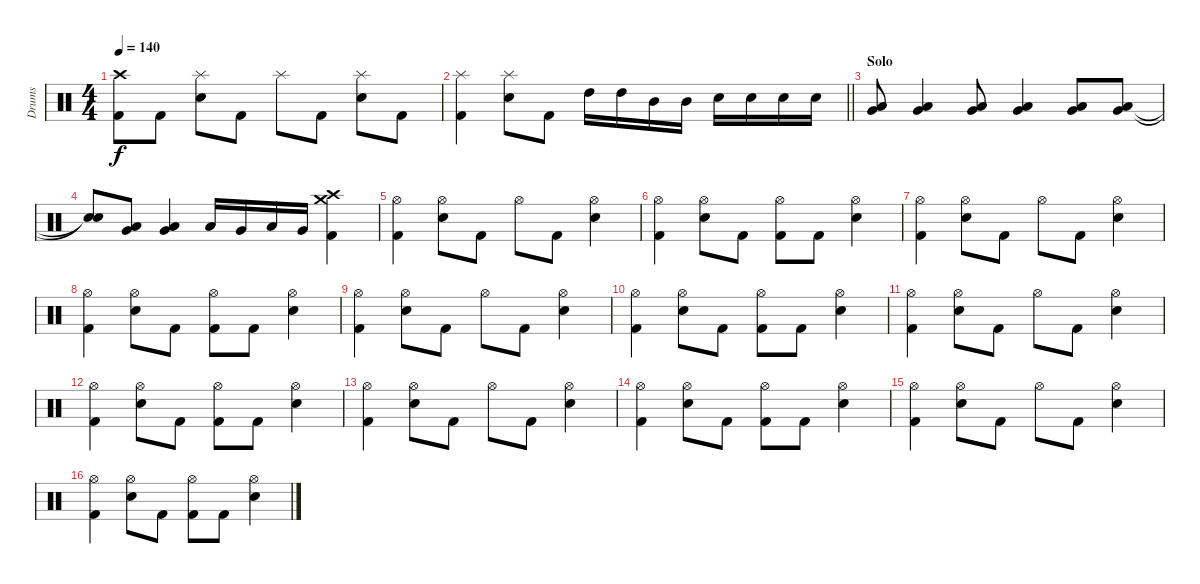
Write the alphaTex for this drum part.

\track ("Drums" "Drums") {instrument percussion}
\staff {score}
\articulation defaults
\ts (4 4)
\tempo 140
\clef neutral
\ks c
("Kick (hit) 2" "Crash high (hit)").8{dy f} "Kick (hit) 2".8 ("Snare (hit) 2" "Splash (hit)").8 "Kick (hit) 2".8 "Splash (hit)".8 "Kick (hit) 2".8 ("Snare (hit) 2" "Splash (hit)").8 "Kick (hit) 2".8 |
\barLineRight lightlight
("Kick (hit) 2" "Splash (hit)").4 ("Snare (hit) 2" "Splash (hit)").8 "Kick (hit) 2".8 "High Tom (hit)".16 "High Tom (hit)".16 "Mid Tom (hit)".16 "Mid Tom (hit)".16 "Snare (hit) 2".16 "Snare (hit) 2".16 "Snare (hit) 2".16 "Snare (hit) 2".16 |
\section ("" "Solo")
("Low Tom (hit)" "Very Low Tom (hit)").8 ("Low Tom (hit)" "Very Low Tom (hit)").4 ("Low Tom (hit)" "Very Low Tom (hit)").8 ("Low Tom (hit)" "Very Low Tom (hit)").4 ("Low Tom (hit)" "Very Low Tom (hit)").8 ("Low Tom (hit)" "Very Low Tom (hit)").8 |
("Snare (hit)"{t} "Snare (hit)"{t}).8 ("Low Tom (hit)" "Very Low Tom (hit)").8 ("Low Tom (hit)" "Very Low Tom (hit)").4 "Low Tom (hit)".16 "Very Low Tom (hit)".16 "Low Tom (hit)".16 "Very Low Tom (hit)".16 ("Kick (hit) 2" "Crash high (hit)" "Crash medium (hit)").4 |
("Kick (hit) 2" "Hi-Hat (open)").4 ("Snare (hit) 2" "Hi-Hat (open)").8 "Kick (hit) 2".8 "Hi-Hat (open)".8 "Kick (hit) 2".8 ("Snare (hit) 2" "Hi-Hat (open)").4 |
("Kick (hit) 2" "Hi-Hat (open)").4 ("Snare (hit) 2" "Hi-Hat (open)").8 "Kick (hit) 2".8 ("Kick (hit) 2" "Hi-Hat (open)").8 "Kick (hit) 2".8 ("Snare (hit) 2" "Hi-Hat (open)").4 |
("Kick (hit) 2" "Hi-Hat (open)").4 ("Snare (hit) 2" "Hi-Hat (open)").8 "Kick (hit) 2".8 "Hi-Hat (open)".8 "Kick (hit) 2".8 ("Snare (hit) 2" "Hi-Hat (open)").4 |
("Kick (hit) 2" "Hi-Hat (open)").4 ("Snare (hit) 2" "Hi-Hat (open)").8 "Kick (hit) 2".8 ("Kick (hit) 2" "Hi-Hat (open)").8 "Kick (hit) 2".8 ("Snare (hit) 2" "Hi-Hat (open)").4 |
("Kick (hit) 2" "Hi-Hat (open)").4 ("Snare (hit) 2" "Hi-Hat (open)").8 "Kick (hit) 2".8 "Hi-Hat (open)".8 "Kick (hit) 2".8 ("Snare (hit) 2" "Hi-Hat (open)").4 |
("Kick (hit) 2" "Hi-Hat (open)").4 ("Snare (hit) 2" "Hi-Hat (open)").8 "Kick (hit) 2".8 ("Kick (hit) 2" "Hi-Hat (open)").8 "Kick (hit) 2".8 ("Snare (hit) 2" "Hi-Hat (open)").4 |
("Kick (hit) 2" "Hi-Hat (open)").4 ("Snare (hit) 2" "Hi-Hat (open)").8 "Kick (hit) 2".8 "Hi-Hat (open)".8 "Kick (hit) 2".8 ("Snare (hit) 2" "Hi-Hat (open)").4 |
("Kick (hit) 2" "Hi-Hat (open)").4 ("Snare (hit) 2" "Hi-Hat (open)").8 "Kick (hit) 2".8 ("Kick (hit) 2" "Hi-Hat (open)").8 "Kick (hit) 2".8 ("Snare (hit) 2" "Hi-Hat (open)").4 |
("Kick (hit) 2" "Hi-Hat (open)").4 ("Snare (hit) 2" "Hi-Hat (open)").8 "Kick (hit) 2".8 "Hi-Hat (open)".8 "Kick (hit) 2".8 ("Snare (hit) 2" "Hi-Hat (open)").4 |
("Kick (hit) 2" "Hi-Hat (open)").4 ("Snare (hit) 2" "Hi-Hat (open)").8 "Kick (hit) 2".8 ("Kick (hit) 2" "Hi-Hat (open)").8 "Kick (hit) 2".8 ("Snare (hit) 2" "Hi-Hat (open)").4 |
("Kick (hit) 2" "Hi-Hat (open)").4 ("Snare (hit) 2" "Hi-Hat (open)").8 "Kick (hit) 2".8 "Hi-Hat (open)".8 "Kick (hit) 2".8 ("Snare (hit) 2" "Hi-Hat (open)").4 |
("Kick (hit) 2" "Hi-Hat (open)").4 ("Snare (hit) 2" "Hi-Hat (open)").8 "Kick (hit) 2".8 ("Kick (hit) 2" "Hi-Hat (open)").8 "Kick (hit) 2".8 ("Snare (hit) 2" "Hi-Hat (open)").4
